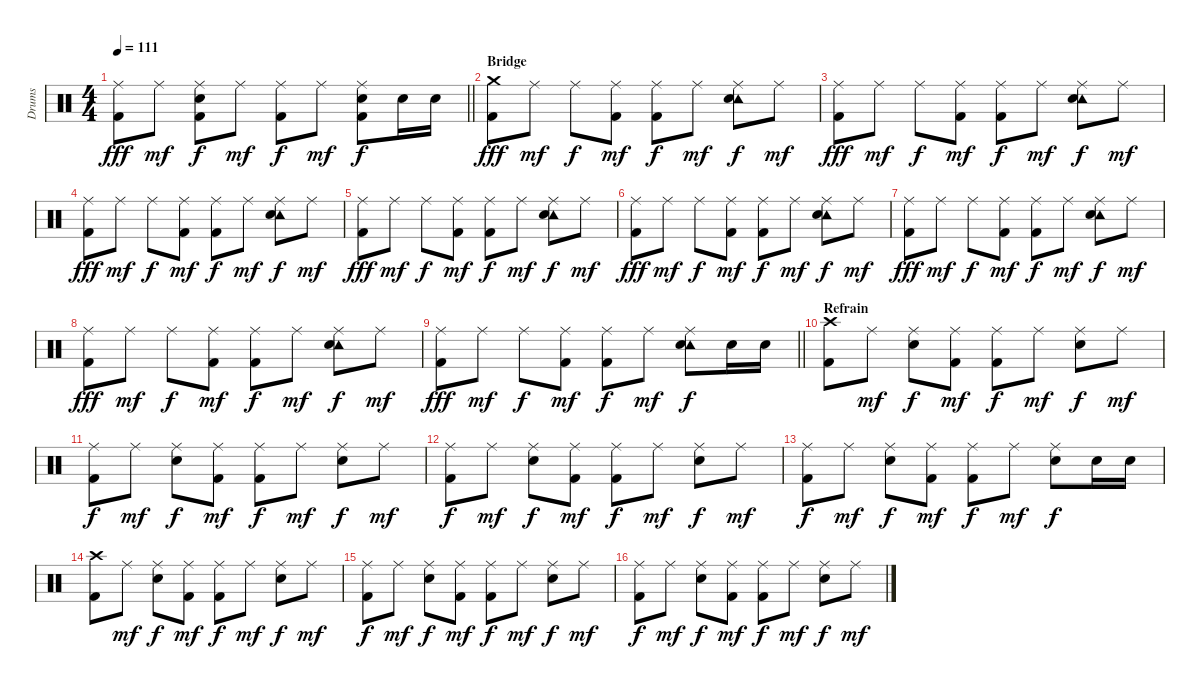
\track ("Drums" "Drums") {instrument percussion}
\staff {score}
\articulation defaults
\ts (4 4)
\tempo 111
\clef neutral
\barLineRight lightlight
\ks c
("Ride (middle)" "Kick (hit) 2").8{dy fff} "Ride (middle)".8{dy mf} ("Ride (middle)" "Snare (hit) 2" "Kick (hit) 2").8{dy f} "Ride (middle)".8{dy mf} ("Ride (middle)" "Kick (hit) 2").8{dy f} "Ride (middle)".8{dy mf} ("Ride (middle)" "Snare (hit) 2" "Kick (hit) 2").8{dy f} "Snare (hit) 2".16 "Snare (hit) 2".16 |
\section ("" "Bridge")
("Crash medium (hit)" "Kick (hit) 2").8{dy fff} "Ride (middle)".8{dy mf} "Ride (middle)".8{dy f} ("Ride (middle)" "Kick (hit) 2").8{dy mf} ("Ride (middle)" "Kick (hit) 2").8{dy f} "Ride (middle)".8{dy mf} ("Ride (middle)" "Tambourine (hit)" "Snare (hit) 2").8{dy f} "Ride (middle)".8{dy mf} |
("Ride (middle)" "Kick (hit) 2").8{dy fff} "Ride (middle)".8{dy mf} "Ride (middle)".8{dy f} ("Ride (middle)" "Kick (hit) 2").8{dy mf} ("Ride (middle)" "Kick (hit) 2").8{dy f} "Ride (middle)".8{dy mf} ("Ride (middle)" "Tambourine (hit)" "Snare (hit) 2").8{dy f} "Ride (middle)".8{dy mf} |
("Ride (middle)" "Kick (hit) 2").8{dy fff} "Ride (middle)".8{dy mf} "Ride (middle)".8{dy f} ("Ride (middle)" "Kick (hit) 2").8{dy mf} ("Ride (middle)" "Kick (hit) 2").8{dy f} "Ride (middle)".8{dy mf} ("Ride (middle)" "Tambourine (hit)" "Snare (hit) 2").8{dy f} "Ride (middle)".8{dy mf} |
("Ride (middle)" "Kick (hit) 2").8{dy fff} "Ride (middle)".8{dy mf} "Ride (middle)".8{dy f} ("Ride (middle)" "Kick (hit) 2").8{dy mf} ("Ride (middle)" "Kick (hit) 2").8{dy f} "Ride (middle)".8{dy mf} ("Ride (middle)" "Tambourine (hit)" "Snare (hit) 2").8{dy f} "Ride (middle)".8{dy mf} |
("Ride (middle)" "Kick (hit) 2").8{dy fff} "Ride (middle)".8{dy mf} "Ride (middle)".8{dy f} ("Ride (middle)" "Kick (hit) 2").8{dy mf} ("Ride (middle)" "Kick (hit) 2").8{dy f} "Ride (middle)".8{dy mf} ("Ride (middle)" "Tambourine (hit)" "Snare (hit) 2").8{dy f} "Ride (middle)".8{dy mf} |
("Ride (middle)" "Kick (hit) 2").8{dy fff} "Ride (middle)".8{dy mf} "Ride (middle)".8{dy f} ("Ride (middle)" "Kick (hit) 2").8{dy mf} ("Ride (middle)" "Kick (hit) 2").8{dy f} "Ride (middle)".8{dy mf} ("Ride (middle)" "Tambourine (hit)" "Snare (hit) 2").8{dy f} "Ride (middle)".8{dy mf} |
("Ride (middle)" "Kick (hit) 2").8{dy fff} "Ride (middle)".8{dy mf} "Ride (middle)".8{dy f} ("Ride (middle)" "Kick (hit) 2").8{dy mf} ("Ride (middle)" "Kick (hit) 2").8{dy f} "Ride (middle)".8{dy mf} ("Ride (middle)" "Tambourine (hit)" "Snare (hit) 2").8{dy f} "Ride (middle)".8{dy mf} |
\barLineRight lightlight
("Ride (middle)" "Kick (hit) 2").8{dy fff} "Ride (middle)".8{dy mf} "Ride (middle)".8{dy f} ("Ride (middle)" "Kick (hit) 2").8{dy mf} ("Ride (middle)" "Kick (hit) 2").8{dy f} "Ride (middle)".8{dy mf} ("Ride (middle)" "Tambourine (hit)" "Snare (hit) 2").8{dy f} "Snare (hit) 2".16 "Snare (hit) 2".16 |
\section ("" "Refrain")
("Crash high (hit)" "Kick (hit) 2").8 "Ride (middle)".8{dy mf} ("Ride (middle)" "Snare (hit) 2").8{dy f} ("Ride (middle)" "Kick (hit) 2").8{dy mf} ("Ride (middle)" "Kick (hit) 2").8{dy f} "Ride (middle)".8{dy mf} ("Ride (middle)" "Snare (hit) 2").8{dy f} "Ride (middle)".8{dy mf} |
("Ride (middle)" "Kick (hit) 2").8{dy f} "Ride (middle)".8{dy mf} ("Ride (middle)" "Snare (hit) 2").8{dy f} ("Ride (middle)" "Kick (hit) 2").8{dy mf} ("Ride (middle)" "Kick (hit) 2").8{dy f} "Ride (middle)".8{dy mf} ("Ride (middle)" "Snare (hit) 2").8{dy f} "Ride (middle)".8{dy mf} |
("Ride (middle)" "Kick (hit) 2").8{dy f} "Ride (middle)".8{dy mf} ("Ride (middle)" "Snare (hit) 2").8{dy f} ("Ride (middle)" "Kick (hit) 2").8{dy mf} ("Ride (middle)" "Kick (hit) 2").8{dy f} "Ride (middle)".8{dy mf} ("Ride (middle)" "Snare (hit) 2").8{dy f} "Ride (middle)".8{dy mf} |
("Ride (middle)" "Kick (hit) 2").8{dy f} "Ride (middle)".8{dy mf} ("Ride (middle)" "Snare (hit) 2").8{dy f} ("Ride (middle)" "Kick (hit) 2").8{dy mf} ("Ride (middle)" "Kick (hit) 2").8{dy f} "Ride (middle)".8{dy mf} ("Ride (middle)" "Snare (hit) 2").8{dy f} "Snare (hit) 2".16 "Snare (hit) 2".16 |
("Crash high (hit)" "Kick (hit) 2").8 "Ride (middle)".8{dy mf} ("Ride (middle)" "Snare (hit) 2").8{dy f} ("Ride (middle)" "Kick (hit) 2").8{dy mf} ("Ride (middle)" "Kick (hit) 2").8{dy f} "Ride (middle)".8{dy mf} ("Ride (middle)" "Snare (hit) 2").8{dy f} "Ride (middle)".8{dy mf} |
("Ride (middle)" "Kick (hit) 2").8{dy f} "Ride (middle)".8{dy mf} ("Ride (middle)" "Snare (hit) 2").8{dy f} ("Ride (middle)" "Kick (hit) 2").8{dy mf} ("Ride (middle)" "Kick (hit) 2").8{dy f} "Ride (middle)".8{dy mf} ("Ride (middle)" "Snare (hit) 2").8{dy f} "Ride (middle)".8{dy mf} |
("Ride (middle)" "Kick (hit) 2").8{dy f} "Ride (middle)".8{dy mf} ("Ride (middle)" "Snare (hit) 2").8{dy f} ("Ride (middle)" "Kick (hit) 2").8{dy mf} ("Ride (middle)" "Kick (hit) 2").8{dy f} "Ride (middle)".8{dy mf} ("Ride (middle)" "Snare (hit) 2").8{dy f} "Ride (middle)".8{dy mf}
